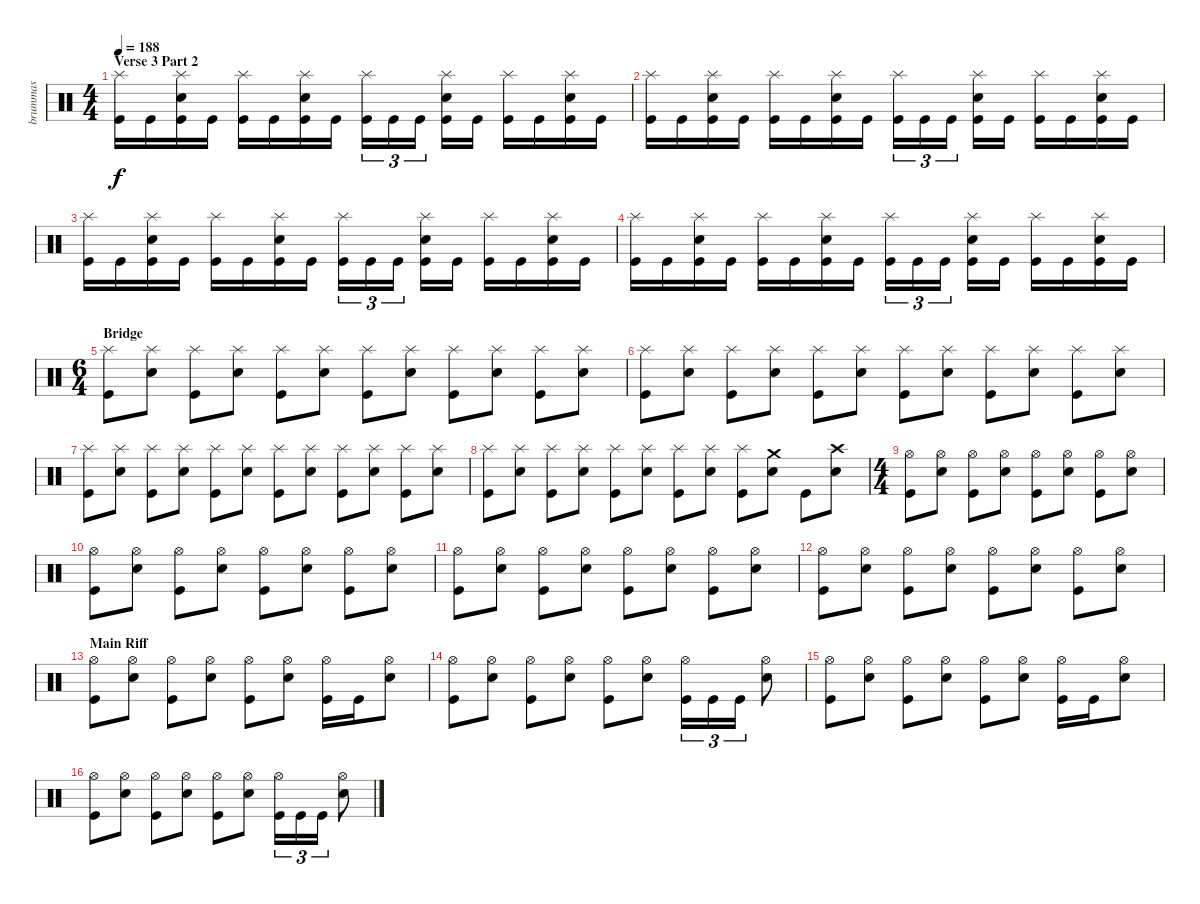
\track ("brummas" "brummas") {instrument percussion}
\staff {score}
\articulation defaults
\ts (4 4)
\section ("" "Verse 3 Part 2")
\tempo 188
\clef neutral
\ks c
("Splash (hit)" "Kick (hit)").16{dy f} "Kick (hit)".16 ("Splash (hit)" "Snare (hit) 2" "Kick (hit)").16 "Kick (hit)".16 ("Splash (hit)" "Kick (hit)").16 "Kick (hit)".16 ("Splash (hit)" "Snare (hit) 2" "Kick (hit)").16 "Kick (hit)".16 ("Splash (hit)" "Kick (hit)").16{tu (3 2)} "Kick (hit)".16{tu (3 2)} "Kick (hit)".16{tu (3 2)} ("Splash (hit)" "Snare (hit) 2" "Kick (hit)").16 "Kick (hit)".16 ("Splash (hit)" "Kick (hit)").16 "Kick (hit)".16 ("Splash (hit)" "Snare (hit) 2" "Kick (hit)").16 "Kick (hit)".16 |
("Splash (hit)" "Kick (hit)").16 "Kick (hit)".16 ("Splash (hit)" "Snare (hit) 2" "Kick (hit)").16 "Kick (hit)".16 ("Splash (hit)" "Kick (hit)").16 "Kick (hit)".16 ("Splash (hit)" "Snare (hit) 2" "Kick (hit)").16 "Kick (hit)".16 ("Splash (hit)" "Kick (hit)").16{tu (3 2)} "Kick (hit)".16{tu (3 2)} "Kick (hit)".16{tu (3 2)} ("Splash (hit)" "Snare (hit) 2" "Kick (hit)").16 "Kick (hit)".16 ("Splash (hit)" "Kick (hit)").16 "Kick (hit)".16 ("Splash (hit)" "Snare (hit) 2" "Kick (hit)").16 "Kick (hit)".16 |
("Splash (hit)" "Kick (hit)").16 "Kick (hit)".16 ("Splash (hit)" "Snare (hit) 2" "Kick (hit)").16 "Kick (hit)".16 ("Splash (hit)" "Kick (hit)").16 "Kick (hit)".16 ("Splash (hit)" "Snare (hit) 2" "Kick (hit)").16 "Kick (hit)".16 ("Splash (hit)" "Kick (hit)").16{tu (3 2)} "Kick (hit)".16{tu (3 2)} "Kick (hit)".16{tu (3 2)} ("Splash (hit)" "Snare (hit) 2" "Kick (hit)").16 "Kick (hit)".16 ("Splash (hit)" "Kick (hit)").16 "Kick (hit)".16 ("Splash (hit)" "Snare (hit) 2" "Kick (hit)").16 "Kick (hit)".16 |
("Splash (hit)" "Kick (hit)").16 "Kick (hit)".16 ("Splash (hit)" "Snare (hit) 2" "Kick (hit)").16 "Kick (hit)".16 ("Splash (hit)" "Kick (hit)").16 "Kick (hit)".16 ("Splash (hit)" "Snare (hit) 2" "Kick (hit)").16 "Kick (hit)".16 ("Splash (hit)" "Kick (hit)").16{tu (3 2)} "Kick (hit)".16{tu (3 2)} "Kick (hit)".16{tu (3 2)} ("Splash (hit)" "Snare (hit) 2" "Kick (hit)").16 "Kick (hit)".16 ("Splash (hit)" "Kick (hit)").16 "Kick (hit)".16 ("Splash (hit)" "Snare (hit) 2" "Kick (hit)").16 "Kick (hit)".16 |
\ts (6 4)
\section ("" "Bridge")
("Splash (hit)" "Kick (hit)").8 ("Splash (hit)" "Snare (hit) 2").8 ("Splash (hit)" "Kick (hit)").8 ("Splash (hit)" "Snare (hit) 2").8 ("Splash (hit)" "Kick (hit)").8 ("Splash (hit)" "Snare (hit) 2").8 ("Splash (hit)" "Kick (hit)").8 ("Splash (hit)" "Snare (hit) 2").8 ("Splash (hit)" "Kick (hit)").8 ("Splash (hit)" "Snare (hit) 2").8 ("Splash (hit)" "Kick (hit)").8 ("Splash (hit)" "Snare (hit) 2").8 |
("Splash (hit)" "Kick (hit)").8 ("Splash (hit)" "Snare (hit) 2").8 ("Splash (hit)" "Kick (hit)").8 ("Splash (hit)" "Snare (hit) 2").8 ("Splash (hit)" "Kick (hit)").8 ("Splash (hit)" "Snare (hit) 2").8 ("Splash (hit)" "Kick (hit)").8 ("Splash (hit)" "Snare (hit) 2").8 ("Splash (hit)" "Kick (hit)").8 ("Splash (hit)" "Snare (hit) 2").8 ("Splash (hit)" "Kick (hit)").8 ("Splash (hit)" "Snare (hit) 2").8 |
("Splash (hit)" "Kick (hit)").8 ("Splash (hit)" "Snare (hit) 2").8 ("Splash (hit)" "Kick (hit)").8 ("Splash (hit)" "Snare (hit) 2").8 ("Splash (hit)" "Kick (hit)").8 ("Splash (hit)" "Snare (hit) 2").8 ("Splash (hit)" "Kick (hit)").8 ("Splash (hit)" "Snare (hit) 2").8 ("Splash (hit)" "Kick (hit)").8 ("Splash (hit)" "Snare (hit) 2").8 ("Splash (hit)" "Kick (hit)").8 ("Splash (hit)" "Snare (hit) 2").8 |
("Splash (hit)" "Kick (hit)").8 ("Splash (hit)" "Snare (hit) 2").8 ("Splash (hit)" "Kick (hit)").8 ("Splash (hit)" "Snare (hit) 2").8 ("Splash (hit)" "Kick (hit)").8 ("Splash (hit)" "Snare (hit) 2").8 ("Splash (hit)" "Kick (hit)").8 ("Splash (hit)" "Snare (hit) 2").8 ("Splash (hit)" "Kick (hit)").8 ("Crash medium (hit)" "Snare (hit) 2").8 "Kick (hit)".8 ("Crash high (hit)" "Snare (hit) 2").8 |
\ts (4 4)
("Hi-Hat (open)" "Kick (hit)").8 ("Hi-Hat (open)" "Snare (hit) 2").8 ("Hi-Hat (open)" "Kick (hit)").8 ("Hi-Hat (open)" "Snare (hit) 2").8 ("Hi-Hat (open)" "Kick (hit)").8 ("Hi-Hat (open)" "Snare (hit) 2").8 ("Hi-Hat (open)" "Kick (hit)").8 ("Hi-Hat (open)" "Snare (hit) 2").8 |
("Hi-Hat (open)" "Kick (hit)").8 ("Hi-Hat (open)" "Snare (hit) 2").8 ("Hi-Hat (open)" "Kick (hit)").8 ("Hi-Hat (open)" "Snare (hit) 2").8 ("Hi-Hat (open)" "Kick (hit)").8 ("Hi-Hat (open)" "Snare (hit) 2").8 ("Hi-Hat (open)" "Kick (hit)").8 ("Hi-Hat (open)" "Snare (hit) 2").8 |
("Hi-Hat (open)" "Kick (hit)").8 ("Hi-Hat (open)" "Snare (hit) 2").8 ("Hi-Hat (open)" "Kick (hit)").8 ("Hi-Hat (open)" "Snare (hit) 2").8 ("Hi-Hat (open)" "Kick (hit)").8 ("Hi-Hat (open)" "Snare (hit) 2").8 ("Hi-Hat (open)" "Kick (hit)").8 ("Hi-Hat (open)" "Snare (hit) 2").8 |
("Hi-Hat (open)" "Kick (hit)").8 ("Hi-Hat (open)" "Snare (hit) 2").8 ("Hi-Hat (open)" "Kick (hit)").8 ("Hi-Hat (open)" "Snare (hit) 2").8 ("Hi-Hat (open)" "Kick (hit)").8 ("Hi-Hat (open)" "Snare (hit) 2").8 ("Hi-Hat (open)" "Kick (hit)").8 ("Hi-Hat (open)" "Snare (hit) 2").8 |
\section ("" "Main Riff")
("Hi-Hat (open)" "Kick (hit)").8 ("Hi-Hat (open)" "Snare (hit) 2").8 ("Hi-Hat (open)" "Kick (hit)").8 ("Hi-Hat (open)" "Snare (hit) 2").8 ("Hi-Hat (open)" "Kick (hit)").8 ("Hi-Hat (open)" "Snare (hit) 2").8 ("Hi-Hat (open)" "Kick (hit)").16 "Kick (hit)".16 ("Hi-Hat (open)" "Snare (hit) 2").8 |
("Hi-Hat (open)" "Kick (hit)").8 ("Hi-Hat (open)" "Snare (hit) 2").8 ("Hi-Hat (open)" "Kick (hit)").8 ("Hi-Hat (open)" "Snare (hit) 2").8 ("Hi-Hat (open)" "Kick (hit)").8 ("Hi-Hat (open)" "Snare (hit) 2").8 ("Hi-Hat (open)" "Kick (hit)").16{tu (3 2)} "Kick (hit)".16{tu (3 2)} "Kick (hit)".16{tu (3 2)} ("Hi-Hat (open)" "Snare (hit) 2").8 |
("Hi-Hat (open)" "Kick (hit)").8 ("Hi-Hat (open)" "Snare (hit) 2").8 ("Hi-Hat (open)" "Kick (hit)").8 ("Hi-Hat (open)" "Snare (hit) 2").8 ("Hi-Hat (open)" "Kick (hit)").8 ("Hi-Hat (open)" "Snare (hit) 2").8 ("Hi-Hat (open)" "Kick (hit)").16 "Kick (hit)".16 ("Hi-Hat (open)" "Snare (hit) 2").8 |
("Hi-Hat (open)" "Kick (hit)").8 ("Hi-Hat (open)" "Snare (hit) 2").8 ("Hi-Hat (open)" "Kick (hit)").8 ("Hi-Hat (open)" "Snare (hit) 2").8 ("Hi-Hat (open)" "Kick (hit)").8 ("Hi-Hat (open)" "Snare (hit) 2").8 ("Hi-Hat (open)" "Kick (hit)").16{tu (3 2)} "Kick (hit)".16{tu (3 2)} "Kick (hit)".16{tu (3 2)} ("Hi-Hat (open)" "Snare (hit) 2").8
